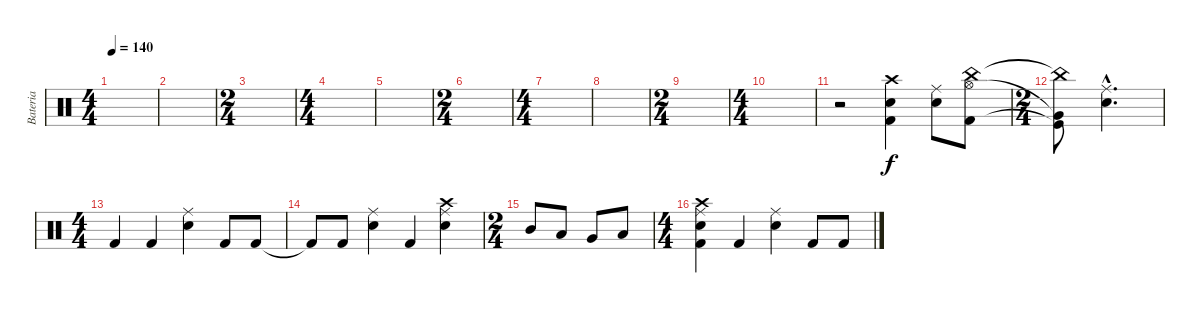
\track ("Bateria" "Bateria") {instrument percussion}
\staff {score}
\articulation defaults
\ts (4 4)
\tempo 140
\clef neutral
\ks c
|
|
\ts (2 4)
|
\ts (4 4)
|
|
\ts (2 4)
|
\ts (4 4)
|
|
\ts (2 4)
|
\ts (4 4)
|
r.2 ("Kick (hit) 2" "Electric Snare (hit)" "Crash high (hit)").4 ("Electric Snare (hit)" "Ride (middle)").8 ("Kick (hit) 2" "Hi-Hat (open)" "China (hit)").8 |
\ts (2 4)
("Kick (hit)"{t} "Very Low Tom (hit)"{t} "China (hit)"{t}).8 ("Electric Snare (hit)"{hac} "Ride (middle)"{hac}).4{d} |
\ts (4 4)
"Kick (hit) 2".4 "Kick (hit) 2".4 ("Electric Snare (hit)" "Ride (middle)").4 "Kick (hit) 2".8 "Kick (hit) 2".8 |
"Kick (hit) 2"{t}.8 "Kick (hit) 2".8 ("Electric Snare (hit)" "Ride (middle)").4 "Kick (hit) 2".4 ("Electric Snare (hit)" "Ride (middle)" "Crash high (hit)").4 |
\ts (2 4)
"Mid Tom (hit)".8 "Low Tom (hit)".8 "Very Low Tom (hit)".8 "Low Floor Tom (hit)".8 |
\ts (4 4)
("Kick (hit) 2" "Electric Snare (hit)" "Ride (middle)" "Crash high (hit)").4 "Kick (hit) 2".4 ("Electric Snare (hit)" "Ride (middle)").4 "Kick (hit) 2".8 "Kick (hit) 2".8
